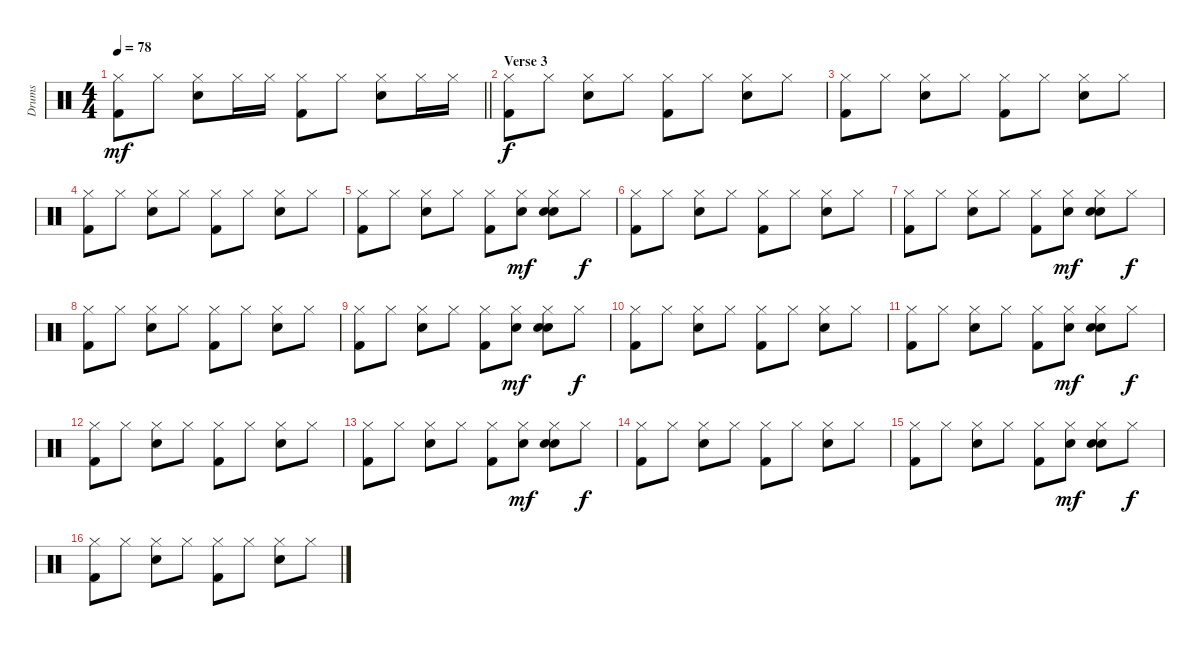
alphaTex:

\track ("Drums" "Drums") {instrument percussion}
\staff {score}
\articulation defaults
\ts (4 4)
\tempo 78
\clef neutral
\barLineRight lightlight
\ks c
("Hi-Hat (closed)" "Kick (hit) 2").8{dy mf} "Hi-Hat (closed)".8 ("Hi-Hat (closed)" "Snare (hit) 2").8 "Hi-Hat (closed)".16 "Hi-Hat (closed)".16 ("Hi-Hat (closed)" "Kick (hit) 2").8 "Hi-Hat (closed)".8 ("Hi-Hat (closed)" "Snare (hit) 2").8 "Hi-Hat (closed)".16 "Hi-Hat (closed)".16 |
\section ("" "Verse 3")
("Hi-Hat (closed)" "Kick (hit) 2").8{dy f} "Hi-Hat (closed)".8 ("Hi-Hat (closed)" "Snare (hit) 2").8 "Hi-Hat (closed)".8 ("Hi-Hat (closed)" "Kick (hit) 2").8 "Hi-Hat (closed)".8 ("Hi-Hat (closed)" "Snare (hit) 2").8 "Hi-Hat (closed)".8 |
("Hi-Hat (closed)" "Kick (hit) 2").8 "Hi-Hat (closed)".8 ("Hi-Hat (closed)" "Snare (hit) 2").8 "Hi-Hat (closed)".8 ("Hi-Hat (closed)" "Kick (hit) 2").8 "Hi-Hat (closed)".8 ("Hi-Hat (closed)" "Snare (hit) 2").8 "Hi-Hat (closed)".8 |
("Hi-Hat (closed)" "Kick (hit) 2").8 "Hi-Hat (closed)".8 ("Hi-Hat (closed)" "Snare (hit) 2").8 "Hi-Hat (closed)".8 ("Hi-Hat (closed)" "Kick (hit) 2").8 "Hi-Hat (closed)".8 ("Hi-Hat (closed)" "Snare (hit) 2").8 "Hi-Hat (closed)".8 |
("Hi-Hat (closed)" "Kick (hit) 2").8 "Hi-Hat (closed)".8 ("Hi-Hat (closed)" "Snare (hit) 2").8 "Hi-Hat (closed)".8 ("Hi-Hat (closed)" "Kick (hit) 2").8 ("Hi-Hat (closed)" "Hand Clap (hit)").8{dy mf} ("Hi-Hat (closed)" "Snare (hit) 2" "Hand Clap (hit)").8 "Hi-Hat (closed)".8{dy f} |
("Hi-Hat (closed)" "Kick (hit) 2").8 "Hi-Hat (closed)".8 ("Hi-Hat (closed)" "Snare (hit) 2").8 "Hi-Hat (closed)".8 ("Hi-Hat (closed)" "Kick (hit) 2").8 "Hi-Hat (closed)".8 ("Hi-Hat (closed)" "Snare (hit) 2").8 "Hi-Hat (closed)".8 |
("Hi-Hat (closed)" "Kick (hit) 2").8 "Hi-Hat (closed)".8 ("Hi-Hat (closed)" "Snare (hit) 2").8 "Hi-Hat (closed)".8 ("Hi-Hat (closed)" "Kick (hit) 2").8 ("Hi-Hat (closed)" "Hand Clap (hit)").8{dy mf} ("Hi-Hat (closed)" "Snare (hit) 2" "Hand Clap (hit)").8 "Hi-Hat (closed)".8{dy f} |
("Hi-Hat (closed)" "Kick (hit) 2").8 "Hi-Hat (closed)".8 ("Hi-Hat (closed)" "Snare (hit) 2").8 "Hi-Hat (closed)".8 ("Hi-Hat (closed)" "Kick (hit) 2").8 "Hi-Hat (closed)".8 ("Hi-Hat (closed)" "Snare (hit) 2").8 "Hi-Hat (closed)".8 |
("Hi-Hat (closed)" "Kick (hit) 2").8 "Hi-Hat (closed)".8 ("Hi-Hat (closed)" "Snare (hit) 2").8 "Hi-Hat (closed)".8 ("Hi-Hat (closed)" "Kick (hit) 2").8 ("Hi-Hat (closed)" "Hand Clap (hit)").8{dy mf} ("Hi-Hat (closed)" "Snare (hit) 2" "Hand Clap (hit)").8 "Hi-Hat (closed)".8{dy f} |
("Hi-Hat (closed)" "Kick (hit) 2").8 "Hi-Hat (closed)".8 ("Hi-Hat (closed)" "Snare (hit) 2").8 "Hi-Hat (closed)".8 ("Hi-Hat (closed)" "Kick (hit) 2").8 "Hi-Hat (closed)".8 ("Hi-Hat (closed)" "Snare (hit) 2").8 "Hi-Hat (closed)".8 |
("Hi-Hat (closed)" "Kick (hit) 2").8 "Hi-Hat (closed)".8 ("Hi-Hat (closed)" "Snare (hit) 2").8 "Hi-Hat (closed)".8 ("Hi-Hat (closed)" "Kick (hit) 2").8 ("Hi-Hat (closed)" "Hand Clap (hit)").8{dy mf} ("Hi-Hat (closed)" "Snare (hit) 2" "Hand Clap (hit)").8 "Hi-Hat (closed)".8{dy f} |
("Hi-Hat (closed)" "Kick (hit) 2").8 "Hi-Hat (closed)".8 ("Hi-Hat (closed)" "Snare (hit) 2").8 "Hi-Hat (closed)".8 ("Hi-Hat (closed)" "Kick (hit) 2").8 "Hi-Hat (closed)".8 ("Hi-Hat (closed)" "Snare (hit) 2").8 "Hi-Hat (closed)".8 |
("Hi-Hat (closed)" "Kick (hit) 2").8 "Hi-Hat (closed)".8 ("Hi-Hat (closed)" "Snare (hit) 2").8 "Hi-Hat (closed)".8 ("Hi-Hat (closed)" "Kick (hit) 2").8 ("Hi-Hat (closed)" "Hand Clap (hit)").8{dy mf} ("Hi-Hat (closed)" "Snare (hit) 2" "Hand Clap (hit)").8 "Hi-Hat (closed)".8{dy f} |
("Hi-Hat (closed)" "Kick (hit) 2").8 "Hi-Hat (closed)".8 ("Hi-Hat (closed)" "Snare (hit) 2").8 "Hi-Hat (closed)".8 ("Hi-Hat (closed)" "Kick (hit) 2").8 "Hi-Hat (closed)".8 ("Hi-Hat (closed)" "Snare (hit) 2").8 "Hi-Hat (closed)".8 |
("Hi-Hat (closed)" "Kick (hit) 2").8 "Hi-Hat (closed)".8 ("Hi-Hat (closed)" "Snare (hit) 2").8 "Hi-Hat (closed)".8 ("Hi-Hat (closed)" "Kick (hit) 2").8 ("Hi-Hat (closed)" "Hand Clap (hit)").8{dy mf} ("Hi-Hat (closed)" "Snare (hit) 2" "Hand Clap (hit)").8 "Hi-Hat (closed)".8{dy f} |
("Hi-Hat (closed)" "Kick (hit) 2").8 "Hi-Hat (closed)".8 ("Hi-Hat (closed)" "Snare (hit) 2").8 "Hi-Hat (closed)".8 ("Hi-Hat (closed)" "Kick (hit) 2").8 "Hi-Hat (closed)".8 ("Hi-Hat (closed)" "Snare (hit) 2").8 "Hi-Hat (closed)".8
